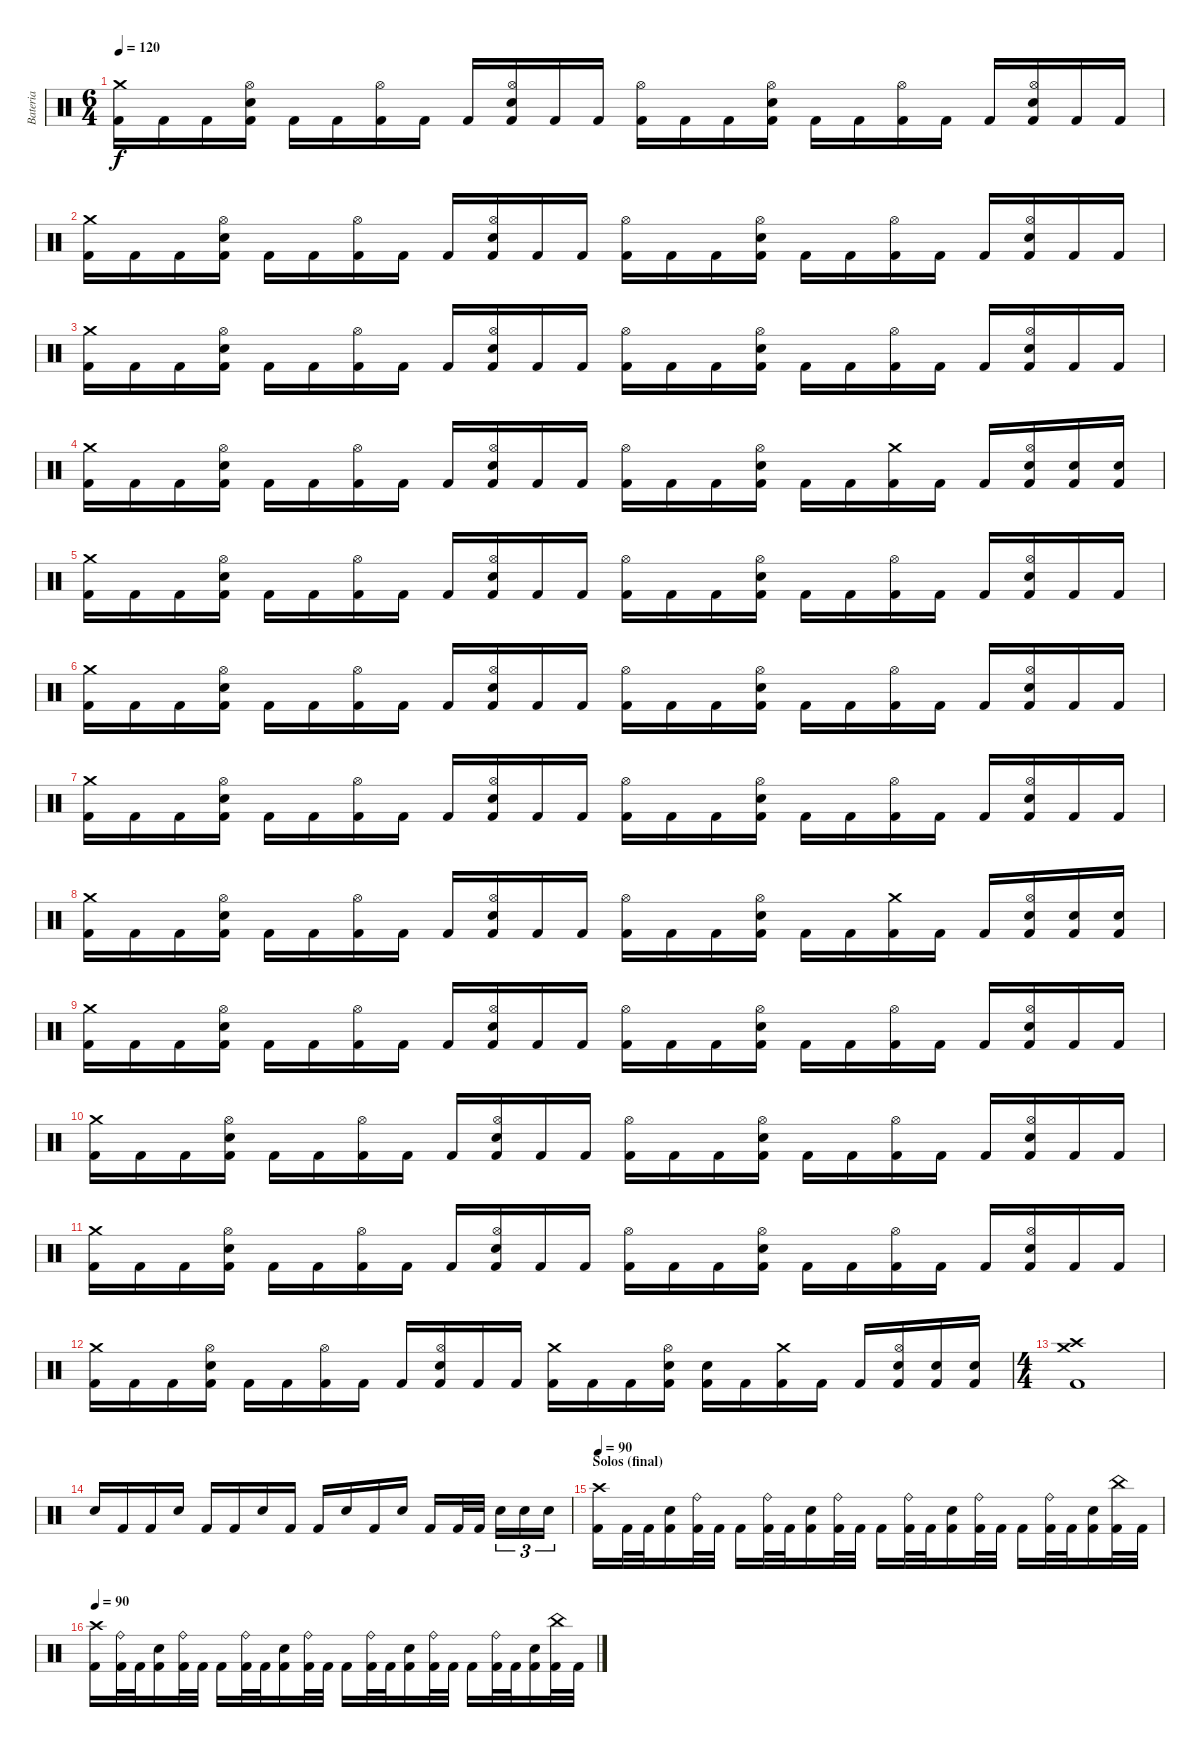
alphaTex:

\track ("Bateria" "Bateria") {instrument percussion}
\staff {score}
\articulation defaults
\ts (6 4)
\tempo 120
\clef neutral
\ks c
("Crash medium (hit)" "Kick (hit) 2").16{dy f} "Kick (hit) 2".16 "Kick (hit) 2".16 ("Hi-Hat (open)" "Electric Snare (hit)" "Kick (hit) 2").16 "Kick (hit) 2".16 "Kick (hit) 2".16 ("Hi-Hat (open)" "Kick (hit) 2").16 "Kick (hit) 2".16 "Kick (hit) 2".16 ("Hi-Hat (open)" "Electric Snare (hit)" "Kick (hit) 2").16 "Kick (hit) 2".16 "Kick (hit) 2".16 ("Hi-Hat (open)" "Kick (hit) 2").16 "Kick (hit) 2".16 "Kick (hit) 2".16 ("Hi-Hat (open)" "Electric Snare (hit)" "Kick (hit) 2").16 "Kick (hit) 2".16 "Kick (hit) 2".16 ("Hi-Hat (open)" "Kick (hit) 2").16 "Kick (hit) 2".16 "Kick (hit) 2".16 ("Hi-Hat (open)" "Electric Snare (hit)" "Kick (hit) 2").16 "Kick (hit) 2".16 "Kick (hit) 2".16 |
("Crash medium (hit)" "Kick (hit) 2").16 "Kick (hit) 2".16 "Kick (hit) 2".16 ("Hi-Hat (open)" "Electric Snare (hit)" "Kick (hit) 2").16 "Kick (hit) 2".16 "Kick (hit) 2".16 ("Hi-Hat (open)" "Kick (hit) 2").16 "Kick (hit) 2".16 "Kick (hit) 2".16 ("Hi-Hat (open)" "Electric Snare (hit)" "Kick (hit) 2").16 "Kick (hit) 2".16 "Kick (hit) 2".16 ("Hi-Hat (open)" "Kick (hit) 2").16 "Kick (hit) 2".16 "Kick (hit) 2".16 ("Hi-Hat (open)" "Electric Snare (hit)" "Kick (hit) 2").16 "Kick (hit) 2".16 "Kick (hit) 2".16 ("Hi-Hat (open)" "Kick (hit) 2").16 "Kick (hit) 2".16 "Kick (hit) 2".16 ("Hi-Hat (open)" "Electric Snare (hit)" "Kick (hit) 2").16 "Kick (hit) 2".16 "Kick (hit) 2".16 |
("Crash medium (hit)" "Kick (hit) 2").16 "Kick (hit) 2".16 "Kick (hit) 2".16 ("Hi-Hat (open)" "Electric Snare (hit)" "Kick (hit) 2").16 "Kick (hit) 2".16 "Kick (hit) 2".16 ("Hi-Hat (open)" "Kick (hit) 2").16 "Kick (hit) 2".16 "Kick (hit) 2".16 ("Hi-Hat (open)" "Electric Snare (hit)" "Kick (hit) 2").16 "Kick (hit) 2".16 "Kick (hit) 2".16 ("Hi-Hat (open)" "Kick (hit) 2").16 "Kick (hit) 2".16 "Kick (hit) 2".16 ("Hi-Hat (open)" "Electric Snare (hit)" "Kick (hit) 2").16 "Kick (hit) 2".16 "Kick (hit) 2".16 ("Hi-Hat (open)" "Kick (hit) 2").16 "Kick (hit) 2".16 "Kick (hit) 2".16 ("Hi-Hat (open)" "Electric Snare (hit)" "Kick (hit) 2").16 "Kick (hit) 2".16 "Kick (hit) 2".16 |
("Crash medium (hit)" "Kick (hit) 2").16 "Kick (hit) 2".16 "Kick (hit) 2".16 ("Hi-Hat (open)" "Electric Snare (hit)" "Kick (hit) 2").16 "Kick (hit) 2".16 "Kick (hit) 2".16 ("Hi-Hat (open)" "Kick (hit) 2").16 "Kick (hit) 2".16 "Kick (hit) 2".16 ("Hi-Hat (open)" "Electric Snare (hit)" "Kick (hit) 2").16 "Kick (hit) 2".16 "Kick (hit) 2".16 ("Hi-Hat (open)" "Kick (hit) 2").16 "Kick (hit) 2".16 "Kick (hit) 2".16 ("Hi-Hat (open)" "Electric Snare (hit)" "Kick (hit) 2").16 "Kick (hit) 2".16 "Kick (hit) 2".16 ("Crash medium (hit)" "Kick (hit) 2").16 "Kick (hit) 2".16 "Kick (hit) 2".16 ("Hi-Hat (open)" "Electric Snare (hit)" "Kick (hit) 2").16 ("Electric Snare (hit)" "Kick (hit) 2").16 ("Electric Snare (hit)" "Kick (hit) 2").16 |
("Crash medium (hit)" "Kick (hit) 2").16 "Kick (hit) 2".16 "Kick (hit) 2".16 ("Hi-Hat (open)" "Electric Snare (hit)" "Kick (hit) 2").16 "Kick (hit) 2".16 "Kick (hit) 2".16 ("Hi-Hat (open)" "Kick (hit) 2").16 "Kick (hit) 2".16 "Kick (hit) 2".16 ("Hi-Hat (open)" "Electric Snare (hit)" "Kick (hit) 2").16 "Kick (hit) 2".16 "Kick (hit) 2".16 ("Hi-Hat (open)" "Kick (hit) 2").16 "Kick (hit) 2".16 "Kick (hit) 2".16 ("Hi-Hat (open)" "Electric Snare (hit)" "Kick (hit) 2").16 "Kick (hit) 2".16 "Kick (hit) 2".16 ("Hi-Hat (open)" "Kick (hit) 2").16 "Kick (hit) 2".16 "Kick (hit) 2".16 ("Hi-Hat (open)" "Electric Snare (hit)" "Kick (hit) 2").16 "Kick (hit) 2".16 "Kick (hit) 2".16 |
("Crash medium (hit)" "Kick (hit) 2").16 "Kick (hit) 2".16 "Kick (hit) 2".16 ("Hi-Hat (open)" "Electric Snare (hit)" "Kick (hit) 2").16 "Kick (hit) 2".16 "Kick (hit) 2".16 ("Hi-Hat (open)" "Kick (hit) 2").16 "Kick (hit) 2".16 "Kick (hit) 2".16 ("Hi-Hat (open)" "Electric Snare (hit)" "Kick (hit) 2").16 "Kick (hit) 2".16 "Kick (hit) 2".16 ("Hi-Hat (open)" "Kick (hit) 2").16 "Kick (hit) 2".16 "Kick (hit) 2".16 ("Hi-Hat (open)" "Electric Snare (hit)" "Kick (hit) 2").16 "Kick (hit) 2".16 "Kick (hit) 2".16 ("Hi-Hat (open)" "Kick (hit) 2").16 "Kick (hit) 2".16 "Kick (hit) 2".16 ("Hi-Hat (open)" "Electric Snare (hit)" "Kick (hit) 2").16 "Kick (hit) 2".16 "Kick (hit) 2".16 |
("Crash medium (hit)" "Kick (hit) 2").16 "Kick (hit) 2".16 "Kick (hit) 2".16 ("Hi-Hat (open)" "Electric Snare (hit)" "Kick (hit) 2").16 "Kick (hit) 2".16 "Kick (hit) 2".16 ("Hi-Hat (open)" "Kick (hit) 2").16 "Kick (hit) 2".16 "Kick (hit) 2".16 ("Hi-Hat (open)" "Electric Snare (hit)" "Kick (hit) 2").16 "Kick (hit) 2".16 "Kick (hit) 2".16 ("Hi-Hat (open)" "Kick (hit) 2").16 "Kick (hit) 2".16 "Kick (hit) 2".16 ("Hi-Hat (open)" "Electric Snare (hit)" "Kick (hit) 2").16 "Kick (hit) 2".16 "Kick (hit) 2".16 ("Hi-Hat (open)" "Kick (hit) 2").16 "Kick (hit) 2".16 "Kick (hit) 2".16 ("Hi-Hat (open)" "Electric Snare (hit)" "Kick (hit) 2").16 "Kick (hit) 2".16 "Kick (hit) 2".16 |
("Crash medium (hit)" "Kick (hit) 2").16 "Kick (hit) 2".16 "Kick (hit) 2".16 ("Hi-Hat (open)" "Electric Snare (hit)" "Kick (hit) 2").16 "Kick (hit) 2".16 "Kick (hit) 2".16 ("Hi-Hat (open)" "Kick (hit) 2").16 "Kick (hit) 2".16 "Kick (hit) 2".16 ("Hi-Hat (open)" "Electric Snare (hit)" "Kick (hit) 2").16 "Kick (hit) 2".16 "Kick (hit) 2".16 ("Hi-Hat (open)" "Kick (hit) 2").16 "Kick (hit) 2".16 "Kick (hit) 2".16 ("Hi-Hat (open)" "Electric Snare (hit)" "Kick (hit) 2").16 "Kick (hit) 2".16 "Kick (hit) 2".16 ("Crash medium (hit)" "Kick (hit) 2").16 "Kick (hit) 2".16 "Kick (hit) 2".16 ("Hi-Hat (open)" "Electric Snare (hit)" "Kick (hit) 2").16 ("Electric Snare (hit)" "Kick (hit) 2").16 ("Electric Snare (hit)" "Kick (hit) 2").16 |
("Crash medium (hit)" "Kick (hit) 2").16 "Kick (hit) 2".16 "Kick (hit) 2".16 ("Hi-Hat (open)" "Electric Snare (hit)" "Kick (hit) 2").16 "Kick (hit) 2".16 "Kick (hit) 2".16 ("Hi-Hat (open)" "Kick (hit) 2").16 "Kick (hit) 2".16 "Kick (hit) 2".16 ("Hi-Hat (open)" "Electric Snare (hit)" "Kick (hit) 2").16 "Kick (hit) 2".16 "Kick (hit) 2".16 ("Hi-Hat (open)" "Kick (hit) 2").16 "Kick (hit) 2".16 "Kick (hit) 2".16 ("Hi-Hat (open)" "Electric Snare (hit)" "Kick (hit) 2").16 "Kick (hit) 2".16 "Kick (hit) 2".16 ("Hi-Hat (open)" "Kick (hit) 2").16 "Kick (hit) 2".16 "Kick (hit) 2".16 ("Hi-Hat (open)" "Electric Snare (hit)" "Kick (hit) 2").16 "Kick (hit) 2".16 "Kick (hit) 2".16 |
("Crash medium (hit)" "Kick (hit) 2").16 "Kick (hit) 2".16 "Kick (hit) 2".16 ("Hi-Hat (open)" "Electric Snare (hit)" "Kick (hit) 2").16 "Kick (hit) 2".16 "Kick (hit) 2".16 ("Hi-Hat (open)" "Kick (hit) 2").16 "Kick (hit) 2".16 "Kick (hit) 2".16 ("Hi-Hat (open)" "Electric Snare (hit)" "Kick (hit) 2").16 "Kick (hit) 2".16 "Kick (hit) 2".16 ("Hi-Hat (open)" "Kick (hit) 2").16 "Kick (hit) 2".16 "Kick (hit) 2".16 ("Hi-Hat (open)" "Electric Snare (hit)" "Kick (hit) 2").16 "Kick (hit) 2".16 "Kick (hit) 2".16 ("Hi-Hat (open)" "Kick (hit) 2").16 "Kick (hit) 2".16 "Kick (hit) 2".16 ("Hi-Hat (open)" "Electric Snare (hit)" "Kick (hit) 2").16 "Kick (hit) 2".16 "Kick (hit) 2".16 |
("Crash medium (hit)" "Kick (hit) 2").16 "Kick (hit) 2".16 "Kick (hit) 2".16 ("Hi-Hat (open)" "Electric Snare (hit)" "Kick (hit) 2").16 "Kick (hit) 2".16 "Kick (hit) 2".16 ("Hi-Hat (open)" "Kick (hit) 2").16 "Kick (hit) 2".16 "Kick (hit) 2".16 ("Hi-Hat (open)" "Electric Snare (hit)" "Kick (hit) 2").16 "Kick (hit) 2".16 "Kick (hit) 2".16 ("Hi-Hat (open)" "Kick (hit) 2").16 "Kick (hit) 2".16 "Kick (hit) 2".16 ("Hi-Hat (open)" "Electric Snare (hit)" "Kick (hit) 2").16 "Kick (hit) 2".16 "Kick (hit) 2".16 ("Hi-Hat (open)" "Kick (hit) 2").16 "Kick (hit) 2".16 "Kick (hit) 2".16 ("Hi-Hat (open)" "Electric Snare (hit)" "Kick (hit) 2").16 "Kick (hit) 2".16 "Kick (hit) 2".16 |
("Crash medium (hit)" "Kick (hit) 2").16 "Kick (hit) 2".16 "Kick (hit) 2".16 ("Hi-Hat (open)" "Electric Snare (hit)" "Kick (hit) 2").16 "Kick (hit) 2".16 "Kick (hit) 2".16 ("Hi-Hat (open)" "Kick (hit) 2").16 "Kick (hit) 2".16 "Kick (hit) 2".16 ("Hi-Hat (open)" "Electric Snare (hit)" "Kick (hit) 2").16 "Kick (hit) 2".16 "Kick (hit) 2".16 ("Crash medium (hit)" "Kick (hit) 2").16 "Kick (hit) 2".16 "Kick (hit) 2".16 ("Hi-Hat (open)" "Electric Snare (hit)" "Kick (hit) 2").16 ("Electric Snare (hit)" "Kick (hit) 2").16 "Kick (hit) 2".16 ("Crash medium (hit)" "Kick (hit) 2").16 "Kick (hit) 2".16 "Kick (hit) 2".16 ("Hi-Hat (open)" "Electric Snare (hit)" "Kick (hit) 2").16 ("Electric Snare (hit)" "Kick (hit) 2").16 ("Electric Snare (hit)" "Kick (hit) 2").16 |
\ts (4 4)
("Crash medium (hit)" "Crash high (hit)" "Kick (hit) 2").1 |
"Electric Snare (hit)".16 "Kick (hit) 2".16 "Kick (hit) 2".16 "Electric Snare (hit)".16 "Kick (hit) 2".16 "Kick (hit) 2".16 "Electric Snare (hit)".16 "Kick (hit) 2".16 "Kick (hit) 2".16 "Electric Snare (hit)".16 "Kick (hit) 2".16 "Electric Snare (hit)".16 "Kick (hit) 2".16 "Kick (hit) 2".32 "Kick (hit) 2".32 "Electric Snare (hit)".16{tu (3 2)} "Electric Snare (hit)".16{tu (3 2)} "Electric Snare (hit)".16{tu (3 2)} |
\section ("" "Solos (final)")
\tempo 90
("Crash high (hit)" "Kick (hit) 2").16 "Kick (hit) 2".32 "Kick (hit) 2".32 ("Snare (hit) 2" "Kick (hit) 2").16 ("Ride (bell)" "Kick (hit) 2").32 "Kick (hit) 2".32 "Kick (hit) 2".16 ("Ride (bell)" "Kick (hit) 2").32 "Kick (hit) 2".32 ("Snare (hit) 2" "Kick (hit) 2").16 ("Ride (bell)" "Kick (hit) 2").32 "Kick (hit) 2".32 "Kick (hit) 2".16 ("Ride (bell)" "Kick (hit) 2").32 "Kick (hit) 2".32 ("Snare (hit) 2" "Kick (hit) 2").16 ("Ride (bell)" "Kick (hit) 2").32 "Kick (hit) 2".32 "Kick (hit) 2".16 ("Ride (bell)" "Kick (hit) 2").32 "Kick (hit) 2".32 ("Snare (hit) 2" "Kick (hit) 2").16 ("China (hit)" "Kick (hit) 2").32 "Kick (hit) 2".32 |
\tempo 90
("Crash high (hit)" "Kick (hit) 2").16 ("Ride (bell)" "Kick (hit) 2").32 "Kick (hit) 2".32 ("Snare (hit) 2" "Kick (hit) 2").16 ("Ride (bell)" "Kick (hit) 2").32 "Kick (hit) 2".32 "Kick (hit) 2".16 ("Ride (bell)" "Kick (hit) 2").32 "Kick (hit) 2".32 ("Snare (hit) 2" "Kick (hit) 2").16 ("Ride (bell)" "Kick (hit) 2").32 "Kick (hit) 2".32 "Kick (hit) 2".16 ("Ride (bell)" "Kick (hit) 2").32 "Kick (hit) 2".32 ("Snare (hit) 2" "Kick (hit) 2").16 ("Ride (bell)" "Kick (hit) 2").32 "Kick (hit) 2".32 "Kick (hit) 2".16 ("Ride (bell)" "Kick (hit) 2").32 "Kick (hit) 2".32 ("Snare (hit) 2" "Kick (hit) 2").16 ("China (hit)" "Kick (hit) 2").32 "Kick (hit) 2".32
